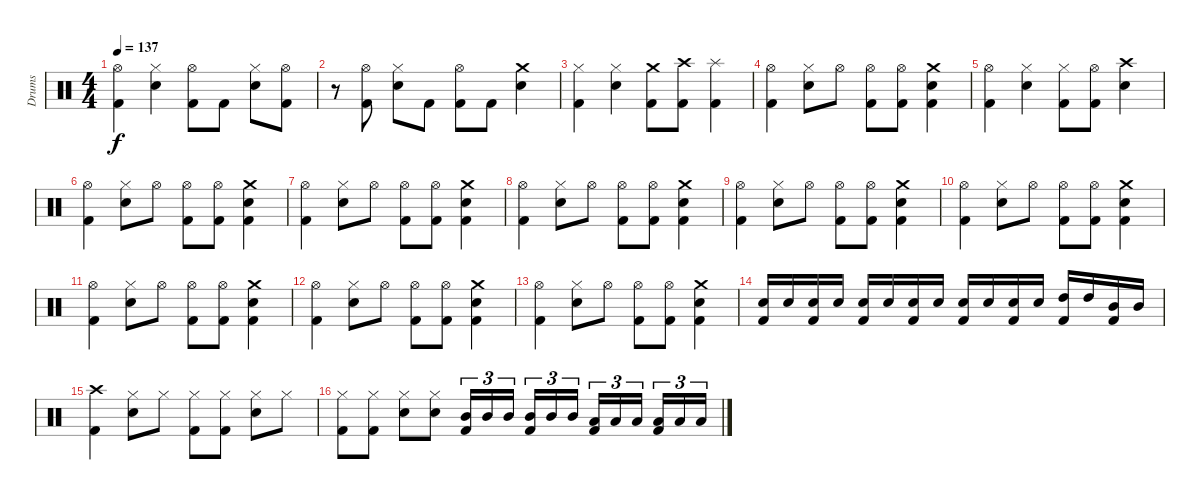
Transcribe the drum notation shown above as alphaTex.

\track ("Drums" "Drums") {instrument percussion}
\staff {score}
\articulation defaults
\ts (4 4)
\tempo 137
\clef neutral
\ks c
("Hi-Hat (open)" "Kick (hit) 2").4{dy f} ("Hi-Hat (closed)" "Snare (hit) 2").4 ("Hi-Hat (open)" "Kick (hit) 2").8 "Kick (hit) 2".8 ("Hi-Hat (closed)" "Snare (hit) 2").8 ("Hi-Hat (open)" "Kick (hit) 2").8 |
r.8 ("Hi-Hat (open)" "Kick (hit) 2").8 ("Hi-Hat (closed)" "Snare (hit) 2").8 "Kick (hit) 2".8 ("Hi-Hat (open)" "Kick (hit) 2").8 "Kick (hit) 2".8 ("Crash medium (hit)" "Snare (hit) 2").4 |
("Hi-Hat (closed)" "Kick (hit) 2").4 ("Hi-Hat (closed)" "Snare (hit) 2").4 ("Crash medium (hit)" "Kick (hit) 2").8 ("Crash high (hit)" "Kick (hit) 2").8 ("Splash (hit)" "Kick (hit) 2").4 |
("Hi-Hat (open)" "Kick (hit) 2").4 ("Hi-Hat (closed)" "Snare (hit) 2").8 "Hi-Hat (open)".8 ("Hi-Hat (open)" "Kick (hit) 2").8 ("Hi-Hat (open)" "Kick (hit) 2").8 ("Crash medium (hit)" "Snare (hit) 2" "Kick (hit) 2").4 |
("Hi-Hat (open)" "Kick (hit) 2").4 ("Hi-Hat (closed)" "Snare (hit) 2").4 ("Hi-Hat (closed)" "Kick (hit) 2").8 ("Hi-Hat (open)" "Kick (hit) 2").8 ("Crash high (hit)" "Snare (hit) 2").4 |
("Hi-Hat (open)" "Kick (hit) 2").4 ("Hi-Hat (closed)" "Snare (hit) 2").8 "Hi-Hat (open)".8 ("Hi-Hat (open)" "Kick (hit) 2").8 ("Hi-Hat (open)" "Kick (hit) 2").8 ("Crash medium (hit)" "Snare (hit) 2" "Kick (hit) 2").4 |
("Hi-Hat (open)" "Kick (hit) 2").4 ("Hi-Hat (closed)" "Snare (hit) 2").8 "Hi-Hat (open)".8 ("Hi-Hat (open)" "Kick (hit) 2").8 ("Hi-Hat (open)" "Kick (hit) 2").8 ("Crash medium (hit)" "Snare (hit) 2" "Kick (hit) 2").4 |
("Hi-Hat (open)" "Kick (hit) 2").4 ("Hi-Hat (closed)" "Snare (hit) 2").8 "Hi-Hat (open)".8 ("Hi-Hat (open)" "Kick (hit) 2").8 ("Hi-Hat (open)" "Kick (hit) 2").8 ("Crash medium (hit)" "Snare (hit) 2" "Kick (hit) 2").4 |
("Hi-Hat (open)" "Kick (hit) 2").4 ("Hi-Hat (closed)" "Snare (hit) 2").8 "Hi-Hat (open)".8 ("Hi-Hat (open)" "Kick (hit) 2").8 ("Hi-Hat (open)" "Kick (hit) 2").8 ("Crash medium (hit)" "Snare (hit) 2" "Kick (hit) 2").4 |
("Hi-Hat (open)" "Kick (hit) 2").4 ("Hi-Hat (closed)" "Snare (hit) 2").8 "Hi-Hat (open)".8 ("Hi-Hat (open)" "Kick (hit) 2").8 ("Hi-Hat (open)" "Kick (hit) 2").8 ("Crash medium (hit)" "Snare (hit) 2" "Kick (hit) 2").4 |
("Hi-Hat (open)" "Kick (hit) 2").4 ("Hi-Hat (closed)" "Snare (hit) 2").8 "Hi-Hat (open)".8 ("Hi-Hat (open)" "Kick (hit) 2").8 ("Hi-Hat (open)" "Kick (hit) 2").8 ("Crash medium (hit)" "Snare (hit) 2" "Kick (hit) 2").4 |
("Hi-Hat (open)" "Kick (hit) 2").4 ("Hi-Hat (closed)" "Snare (hit) 2").8 "Hi-Hat (open)".8 ("Hi-Hat (open)" "Kick (hit) 2").8 ("Hi-Hat (open)" "Kick (hit) 2").8 ("Crash medium (hit)" "Snare (hit) 2" "Kick (hit) 2").4 |
("Hi-Hat (open)" "Kick (hit) 2").4 ("Hi-Hat (closed)" "Snare (hit) 2").8 "Hi-Hat (open)".8 ("Hi-Hat (open)" "Kick (hit) 2").8 ("Hi-Hat (open)" "Kick (hit) 2").8 ("Crash medium (hit)" "Snare (hit) 2" "Kick (hit) 2").4 |
("Snare (hit) 2" "Kick (hit) 2").16 "Snare (hit) 2".16 ("Snare (hit) 2" "Kick (hit) 2").16 "Snare (hit) 2".16 ("Snare (hit) 2" "Kick (hit) 2").16 "Snare (hit) 2".16 ("Snare (hit) 2" "Kick (hit) 2").16 "Snare (hit) 2".16 ("Snare (hit) 2" "Kick (hit) 2").16 "Snare (hit) 2".16 ("Snare (hit) 2" "Kick (hit) 2").16 "Snare (hit) 2".16 ("High Tom (hit)" "Kick (hit) 2").16 "High Tom (hit)".16 ("Mid Tom (hit)" "Kick (hit) 2").16 "Mid Tom (hit)".16 |
("Crash high (hit)" "Kick (hit) 2").4 ("Hi-Hat (closed)" "Snare (hit) 2").8 "Hi-Hat (closed)".8 ("Hi-Hat (closed)" "Kick (hit) 2").8 ("Hi-Hat (closed)" "Kick (hit) 2").8 ("Hi-Hat (closed)" "Snare (hit) 2").8 "Hi-Hat (closed)".8 |
("Hi-Hat (closed)" "Kick (hit) 2").8 ("Hi-Hat (closed)" "Kick (hit) 2").8 ("Hi-Hat (closed)" "Snare (hit) 2").8 ("Hi-Hat (closed)" "Snare (hit) 2").8 ("Mid Tom (hit)" "Kick (hit) 2").16{tu (3 2)} "Mid Tom (hit)".16{tu (3 2)} "Mid Tom (hit)".16{tu (3 2)} ("Mid Tom (hit)" "Kick (hit) 2").16{tu (3 2)} "Mid Tom (hit)".16{tu (3 2)} "Mid Tom (hit)".16{tu (3 2)} ("Low Tom (hit)" "Kick (hit) 2").16{tu (3 2)} "Low Tom (hit)".16{tu (3 2)} "Low Tom (hit)".16{tu (3 2)} ("Low Tom (hit)" "Kick (hit) 2").16{tu (3 2)} "Low Tom (hit)".16{tu (3 2)} "Low Tom (hit)".16{tu (3 2)}
